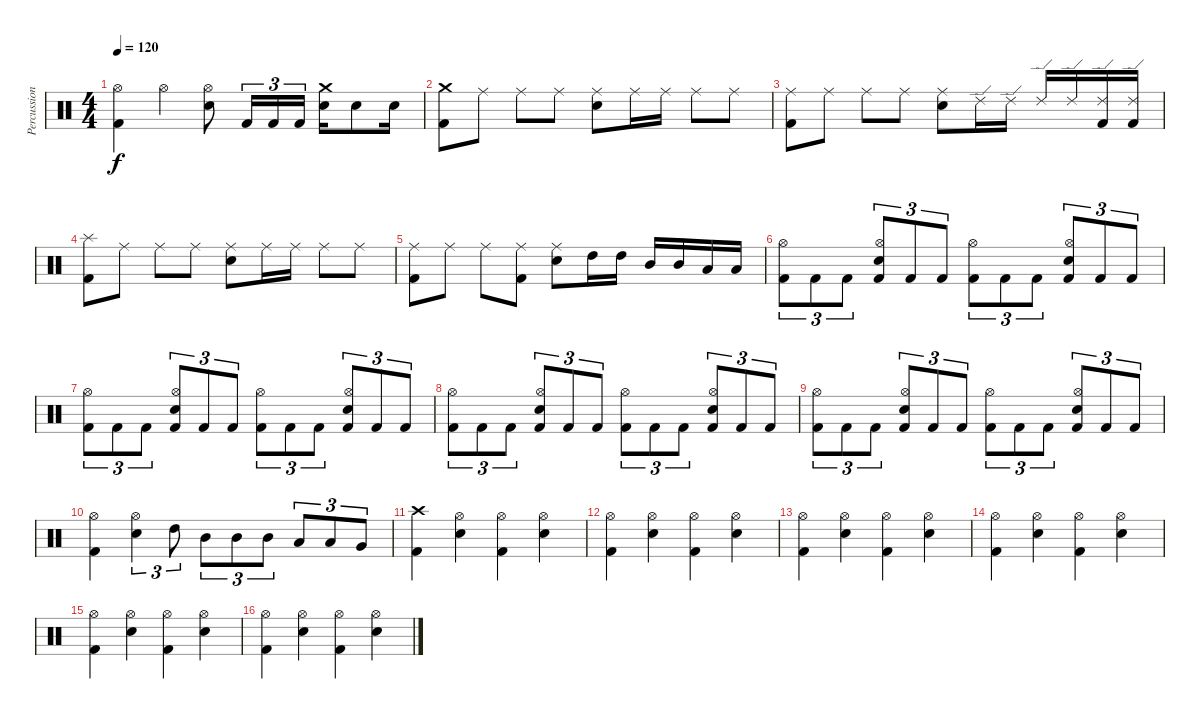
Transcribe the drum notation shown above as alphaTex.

\track ("Percussions" "Percussion") {instrument percussion}
\staff {score}
\articulation defaults
\ts (4 4)
\tempo 120
\clef neutral
\ks c
("Kick (hit) 2" "Hi-Hat (open)").4{dy f} "Hi-Hat (open)".4 ("Electric Snare (hit)" "Hi-Hat (open)").8 "Kick (hit) 2".16{tu (3 2)} "Kick (hit) 2".16{tu (3 2)} "Kick (hit) 2".16{tu (3 2)} ("Electric Snare (hit)" "Crash medium (hit)").16 "Electric Snare (hit)".8 "Electric Snare (hit)".16 |
("Kick (hit) 2" "Crash medium (hit)").8 "Ride (middle)".8 "Ride (middle)".8 "Ride (middle)".8 ("Electric Snare (hit)" "Ride (middle)").8 "Ride (middle)".16 "Ride (middle)".16 "Ride (middle)".8 "Ride (middle)".8 |
("Kick (hit) 2" "Ride (middle)").8 "Ride (middle)".8 "Ride (middle)".8 "Ride (middle)".8 ("Electric Snare (hit)" "Ride (middle)").8 "Ride (edge) 2".16 "Ride (edge) 2".16 "Ride (edge) 2".16 "Ride (edge) 2".16 ("Kick (hit) 2" "Ride (edge) 2").16 ("Kick (hit) 2" "Ride (edge) 2").16 |
("Kick (hit) 2" "Splash (hit)").8 "Ride (middle)".8 "Ride (middle)".8 "Ride (middle)".8 ("Electric Snare (hit)" "Ride (middle)").8 "Ride (middle)".16 "Ride (middle)".16 "Ride (middle)".8 "Ride (middle)".8 |
("Kick (hit) 2" "Ride (middle)").8 "Ride (middle)".8 "Ride (middle)".8 ("Kick (hit) 2" "Ride (middle)").8 ("Electric Snare (hit)" "Ride (middle)").8 "High Tom (hit)".16 "High Tom (hit)".16 "Mid Tom (hit)".16 "Mid Tom (hit)".16 "Low Tom (hit)".16 "Low Tom (hit)".16 |
("Kick (hit) 2" "Hi-Hat (open)").8{tu (3 2)} "Kick (hit) 2".8{tu (3 2)} "Kick (hit) 2".8{tu (3 2)} ("Kick (hit) 2" "Electric Snare (hit)" "Hi-Hat (open)").8{tu (3 2)} "Kick (hit) 2".8{tu (3 2)} "Kick (hit) 2".8{tu (3 2)} ("Kick (hit) 2" "Hi-Hat (open)").8{tu (3 2)} "Kick (hit) 2".8{tu (3 2)} "Kick (hit) 2".8{tu (3 2)} ("Kick (hit) 2" "Electric Snare (hit)" "Hi-Hat (open)").8{tu (3 2)} "Kick (hit) 2".8{tu (3 2)} "Kick (hit) 2".8{tu (3 2)} |
("Kick (hit) 2" "Hi-Hat (open)").8{tu (3 2)} "Kick (hit) 2".8{tu (3 2)} "Kick (hit) 2".8{tu (3 2)} ("Kick (hit) 2" "Electric Snare (hit)" "Hi-Hat (open)").8{tu (3 2)} "Kick (hit) 2".8{tu (3 2)} "Kick (hit) 2".8{tu (3 2)} ("Kick (hit) 2" "Hi-Hat (open)").8{tu (3 2)} "Kick (hit) 2".8{tu (3 2)} "Kick (hit) 2".8{tu (3 2)} ("Kick (hit) 2" "Electric Snare (hit)" "Hi-Hat (open)").8{tu (3 2)} "Kick (hit) 2".8{tu (3 2)} "Kick (hit) 2".8{tu (3 2)} |
("Kick (hit) 2" "Hi-Hat (open)").8{tu (3 2)} "Kick (hit) 2".8{tu (3 2)} "Kick (hit) 2".8{tu (3 2)} ("Kick (hit) 2" "Electric Snare (hit)" "Hi-Hat (open)").8{tu (3 2)} "Kick (hit) 2".8{tu (3 2)} "Kick (hit) 2".8{tu (3 2)} ("Kick (hit) 2" "Hi-Hat (open)").8{tu (3 2)} "Kick (hit) 2".8{tu (3 2)} "Kick (hit) 2".8{tu (3 2)} ("Kick (hit) 2" "Electric Snare (hit)" "Hi-Hat (open)").8{tu (3 2)} "Kick (hit) 2".8{tu (3 2)} "Kick (hit) 2".8{tu (3 2)} |
("Kick (hit) 2" "Hi-Hat (open)").8{tu (3 2)} "Kick (hit) 2".8{tu (3 2)} "Kick (hit) 2".8{tu (3 2)} ("Kick (hit) 2" "Electric Snare (hit)" "Hi-Hat (open)").8{tu (3 2)} "Kick (hit) 2".8{tu (3 2)} "Kick (hit) 2".8{tu (3 2)} ("Kick (hit) 2" "Hi-Hat (open)").8{tu (3 2)} "Kick (hit) 2".8{tu (3 2)} "Kick (hit) 2".8{tu (3 2)} ("Kick (hit) 2" "Electric Snare (hit)" "Hi-Hat (open)").8{tu (3 2)} "Kick (hit) 2".8{tu (3 2)} "Kick (hit) 2".8{tu (3 2)} |
("Kick (hit) 2" "Hi-Hat (open)").4 ("Electric Snare (hit)" "Hi-Hat (open)").4{tu (3 2)} "High Tom (hit)".8{tu (3 2)} "Mid Tom (hit)".8{tu (3 2)} "Mid Tom (hit)".8{tu (3 2)} "Mid Tom (hit)".8{tu (3 2)} "Low Tom (hit)".8{tu (3 2)} "Low Tom (hit)".8{tu (3 2)} "Very Low Tom (hit)".8{tu (3 2)} |
("Kick (hit) 2" "Crash high (hit)").4 ("Electric Snare (hit)" "Hi-Hat (open)").4 ("Kick (hit) 2" "Hi-Hat (open)").4 ("Electric Snare (hit)" "Hi-Hat (open)").4 |
("Kick (hit) 2" "Hi-Hat (open)").4 ("Electric Snare (hit)" "Hi-Hat (open)").4 ("Kick (hit) 2" "Hi-Hat (open)").4 ("Electric Snare (hit)" "Hi-Hat (open)").4 |
("Kick (hit) 2" "Hi-Hat (open)").4 ("Electric Snare (hit)" "Hi-Hat (open)").4 ("Kick (hit) 2" "Hi-Hat (open)").4 ("Electric Snare (hit)" "Hi-Hat (open)").4 |
("Kick (hit) 2" "Hi-Hat (open)").4 ("Electric Snare (hit)" "Hi-Hat (open)").4 ("Kick (hit) 2" "Hi-Hat (open)").4 ("Electric Snare (hit)" "Hi-Hat (open)").4 |
("Kick (hit) 2" "Hi-Hat (open)").4 ("Electric Snare (hit)" "Hi-Hat (open)").4 ("Kick (hit) 2" "Hi-Hat (open)").4 ("Electric Snare (hit)" "Hi-Hat (open)").4 |
("Kick (hit) 2" "Hi-Hat (open)").4 ("Electric Snare (hit)" "Hi-Hat (open)").4 ("Kick (hit) 2" "Hi-Hat (open)").4 ("Electric Snare (hit)" "Hi-Hat (open)").4
